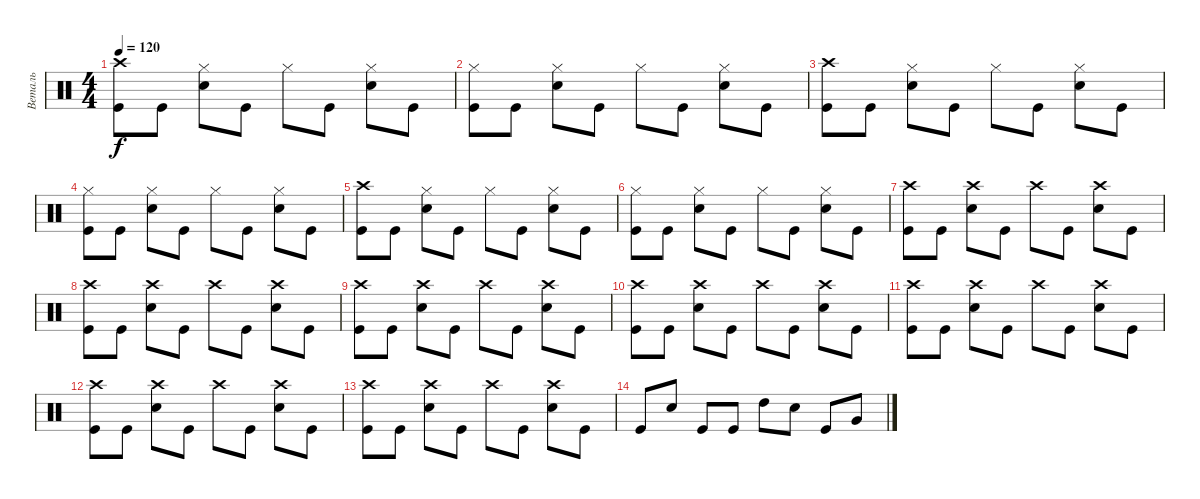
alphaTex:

\track ("Веталь" "Веталь") {instrument percussion}
\staff {score}
\articulation defaults
\ts (4 4)
\tempo 120
\clef neutral
\ks c
("Crash high (hit)" "Kick (hit)").8{dy f} "Kick (hit)".8 ("Hi-Hat (closed)" "Snare (hit) 2").8 "Kick (hit)".8 "Hi-Hat (closed)".8 "Kick (hit)".8 ("Hi-Hat (closed)" "Snare (hit) 2").8 "Kick (hit)".8 |
("Hi-Hat (closed)" "Kick (hit)").8 "Kick (hit)".8 ("Hi-Hat (closed)" "Snare (hit) 2").8 "Kick (hit)".8 "Hi-Hat (closed)".8 "Kick (hit)".8 ("Hi-Hat (closed)" "Snare (hit) 2").8 "Kick (hit)".8 |
("Crash high (hit)" "Kick (hit)").8 "Kick (hit)".8 ("Hi-Hat (closed)" "Snare (hit) 2").8 "Kick (hit)".8 "Hi-Hat (closed)".8 "Kick (hit)".8 ("Hi-Hat (closed)" "Snare (hit) 2").8 "Kick (hit)".8 |
("Hi-Hat (closed)" "Kick (hit)").8 "Kick (hit)".8 ("Hi-Hat (closed)" "Snare (hit) 2").8 "Kick (hit)".8 "Hi-Hat (closed)".8 "Kick (hit)".8 ("Hi-Hat (closed)" "Snare (hit) 2").8 "Kick (hit)".8 |
("Crash high (hit)" "Kick (hit)").8 "Kick (hit)".8 ("Hi-Hat (closed)" "Snare (hit) 2").8 "Kick (hit)".8 "Hi-Hat (closed)".8 "Kick (hit)".8 ("Hi-Hat (closed)" "Snare (hit) 2").8 "Kick (hit)".8 |
("Hi-Hat (closed)" "Kick (hit)").8 "Kick (hit)".8 ("Hi-Hat (closed)" "Snare (hit) 2").8 "Kick (hit)".8 "Hi-Hat (closed)".8 "Kick (hit)".8 ("Hi-Hat (closed)" "Snare (hit) 2").8 "Kick (hit)".8 |
("Crash high (hit)" "Kick (hit)").8 "Kick (hit)".8 ("Crash high (hit)" "Snare (hit) 2").8 "Kick (hit)".8 "Crash high (hit)".8 "Kick (hit)".8 ("Crash high (hit)" "Snare (hit) 2").8 "Kick (hit)".8 |
("Crash high (hit)" "Kick (hit)").8 "Kick (hit)".8 ("Crash high (hit)" "Snare (hit) 2").8 "Kick (hit)".8 "Crash high (hit)".8 "Kick (hit)".8 ("Crash high (hit)" "Snare (hit) 2").8 "Kick (hit)".8 |
("Crash high (hit)" "Kick (hit)").8 "Kick (hit)".8 ("Crash high (hit)" "Snare (hit) 2").8 "Kick (hit)".8 "Crash high (hit)".8 "Kick (hit)".8 ("Crash high (hit)" "Snare (hit) 2").8 "Kick (hit)".8 |
("Crash high (hit)" "Kick (hit)").8 "Kick (hit)".8 ("Crash high (hit)" "Snare (hit) 2").8 "Kick (hit)".8 "Crash high (hit)".8 "Kick (hit)".8 ("Crash high (hit)" "Snare (hit) 2").8 "Kick (hit)".8 |
("Crash high (hit)" "Kick (hit)").8 "Kick (hit)".8 ("Crash high (hit)" "Snare (hit) 2").8 "Kick (hit)".8 "Crash high (hit)".8 "Kick (hit)".8 ("Crash high (hit)" "Snare (hit) 2").8 "Kick (hit)".8 |
("Crash high (hit)" "Kick (hit)").8 "Kick (hit)".8 ("Crash high (hit)" "Snare (hit) 2").8 "Kick (hit)".8 "Crash high (hit)".8 "Kick (hit)".8 ("Crash high (hit)" "Snare (hit) 2").8 "Kick (hit)".8 |
("Crash high (hit)" "Kick (hit)").8 "Kick (hit)".8 ("Crash high (hit)" "Snare (hit) 2").8 "Kick (hit)".8 "Crash high (hit)".8 "Kick (hit)".8 ("Crash high (hit)" "Snare (hit) 2").8 "Kick (hit)".8 |
"Kick (hit)".8 "Snare (hit) 2".8 "Kick (hit)".8 "Kick (hit)".8 "High Tom (hit)".8 "Snare (hit) 2".8 "Kick (hit)".8 "Very Low Tom (hit)".8
